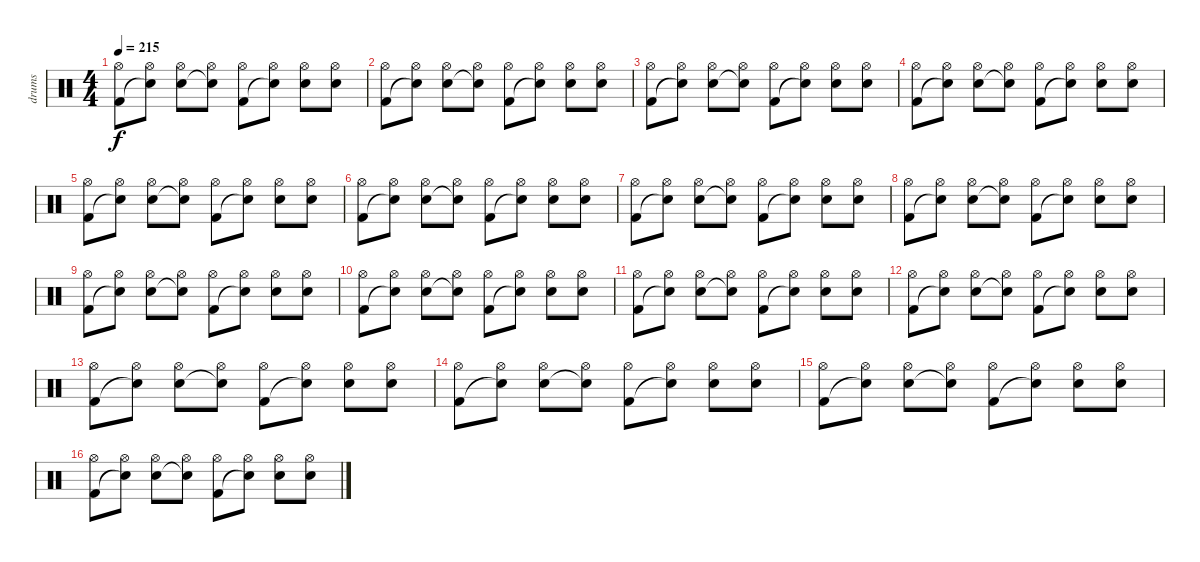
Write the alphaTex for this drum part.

\track ("drums" "drums") {instrument percussion}
\staff {score}
\articulation defaults
\ts (4 4)
\tempo 215
\clef neutral
\ks c
("Hi-Hat (open)" "Kick (hit) 2").8{dy f} ("Hi-Hat (open)" "Snare (hit)"{t}).8 ("Hi-Hat (open)" "Snare (hit) 2").8 ("Hi-Hat (open)" "Snare (hit)"{t}).8 ("Hi-Hat (open)" "Kick (hit) 2").8 ("Hi-Hat (open)" "Snare (hit)"{t}).8 ("Hi-Hat (open)" "Snare (hit) 2").8 ("Hi-Hat (open)" "Snare (hit) 2").8 |
("Hi-Hat (open)" "Kick (hit) 2").8 ("Hi-Hat (open)" "Snare (hit)"{t}).8 ("Hi-Hat (open)" "Snare (hit) 2").8 ("Hi-Hat (open)" "Snare (hit)"{t}).8 ("Hi-Hat (open)" "Kick (hit) 2").8 ("Hi-Hat (open)" "Snare (hit)"{t}).8 ("Hi-Hat (open)" "Snare (hit) 2").8 ("Hi-Hat (open)" "Snare (hit) 2").8 |
("Hi-Hat (open)" "Kick (hit) 2").8 ("Hi-Hat (open)" "Snare (hit)"{t}).8 ("Hi-Hat (open)" "Snare (hit) 2").8 ("Hi-Hat (open)" "Snare (hit)"{t}).8 ("Hi-Hat (open)" "Kick (hit) 2").8 ("Hi-Hat (open)" "Snare (hit)"{t}).8 ("Hi-Hat (open)" "Snare (hit) 2").8 ("Hi-Hat (open)" "Snare (hit) 2").8 |
("Hi-Hat (open)" "Kick (hit) 2").8 ("Hi-Hat (open)" "Snare (hit)"{t}).8 ("Hi-Hat (open)" "Snare (hit) 2").8 ("Hi-Hat (open)" "Snare (hit)"{t}).8 ("Hi-Hat (open)" "Kick (hit) 2").8 ("Hi-Hat (open)" "Snare (hit)"{t}).8 ("Hi-Hat (open)" "Snare (hit) 2").8 ("Hi-Hat (open)" "Snare (hit) 2").8 |
("Hi-Hat (open)" "Kick (hit) 2").8 ("Hi-Hat (open)" "Snare (hit)"{t}).8 ("Hi-Hat (open)" "Snare (hit) 2").8 ("Hi-Hat (open)" "Snare (hit)"{t}).8 ("Hi-Hat (open)" "Kick (hit) 2").8 ("Hi-Hat (open)" "Snare (hit)"{t}).8 ("Hi-Hat (open)" "Snare (hit) 2").8 ("Hi-Hat (open)" "Snare (hit) 2").8 |
("Hi-Hat (open)" "Kick (hit) 2").8 ("Hi-Hat (open)" "Snare (hit)"{t}).8 ("Hi-Hat (open)" "Snare (hit) 2").8 ("Hi-Hat (open)" "Snare (hit)"{t}).8 ("Hi-Hat (open)" "Kick (hit) 2").8 ("Hi-Hat (open)" "Snare (hit)"{t}).8 ("Hi-Hat (open)" "Snare (hit) 2").8 ("Hi-Hat (open)" "Snare (hit) 2").8 |
("Hi-Hat (open)" "Kick (hit) 2").8 ("Hi-Hat (open)" "Snare (hit)"{t}).8 ("Hi-Hat (open)" "Snare (hit) 2").8 ("Hi-Hat (open)" "Snare (hit)"{t}).8 ("Hi-Hat (open)" "Kick (hit) 2").8 ("Hi-Hat (open)" "Snare (hit)"{t}).8 ("Hi-Hat (open)" "Snare (hit) 2").8 ("Hi-Hat (open)" "Snare (hit) 2").8 |
("Hi-Hat (open)" "Kick (hit) 2").8 ("Hi-Hat (open)" "Snare (hit)"{t}).8 ("Hi-Hat (open)" "Snare (hit) 2").8 ("Hi-Hat (open)" "Snare (hit)"{t}).8 ("Hi-Hat (open)" "Kick (hit) 2").8 ("Hi-Hat (open)" "Snare (hit)"{t}).8 ("Hi-Hat (open)" "Snare (hit) 2").8 ("Hi-Hat (open)" "Snare (hit) 2").8 |
("Hi-Hat (open)" "Kick (hit) 2").8 ("Hi-Hat (open)" "Snare (hit)"{t}).8 ("Hi-Hat (open)" "Snare (hit) 2").8 ("Hi-Hat (open)" "Snare (hit)"{t}).8 ("Hi-Hat (open)" "Kick (hit) 2").8 ("Hi-Hat (open)" "Snare (hit)"{t}).8 ("Hi-Hat (open)" "Snare (hit) 2").8 ("Hi-Hat (open)" "Snare (hit) 2").8 |
("Hi-Hat (open)" "Kick (hit) 2").8 ("Hi-Hat (open)" "Snare (hit)"{t}).8 ("Hi-Hat (open)" "Snare (hit) 2").8 ("Hi-Hat (open)" "Snare (hit)"{t}).8 ("Hi-Hat (open)" "Kick (hit) 2").8 ("Hi-Hat (open)" "Snare (hit)"{t}).8 ("Hi-Hat (open)" "Snare (hit) 2").8 ("Hi-Hat (open)" "Snare (hit) 2").8 |
("Hi-Hat (open)" "Kick (hit) 2").8 ("Hi-Hat (open)" "Snare (hit)"{t}).8 ("Hi-Hat (open)" "Snare (hit) 2").8 ("Hi-Hat (open)" "Snare (hit)"{t}).8 ("Hi-Hat (open)" "Kick (hit) 2").8 ("Hi-Hat (open)" "Snare (hit)"{t}).8 ("Hi-Hat (open)" "Snare (hit) 2").8 ("Hi-Hat (open)" "Snare (hit) 2").8 |
("Hi-Hat (open)" "Kick (hit) 2").8 ("Hi-Hat (open)" "Snare (hit)"{t}).8 ("Hi-Hat (open)" "Snare (hit) 2").8 ("Hi-Hat (open)" "Snare (hit)"{t}).8 ("Hi-Hat (open)" "Kick (hit) 2").8 ("Hi-Hat (open)" "Snare (hit)"{t}).8 ("Hi-Hat (open)" "Snare (hit) 2").8 ("Hi-Hat (open)" "Snare (hit) 2").8 |
("Hi-Hat (open)" "Kick (hit) 2").8 ("Hi-Hat (open)" "Snare (hit)"{t}).8 ("Hi-Hat (open)" "Snare (hit) 2").8 ("Hi-Hat (open)" "Snare (hit)"{t}).8 ("Hi-Hat (open)" "Kick (hit) 2").8 ("Hi-Hat (open)" "Snare (hit)"{t}).8 ("Hi-Hat (open)" "Snare (hit) 2").8 ("Hi-Hat (open)" "Snare (hit) 2").8 |
("Hi-Hat (open)" "Kick (hit) 2").8 ("Hi-Hat (open)" "Snare (hit)"{t}).8 ("Hi-Hat (open)" "Snare (hit) 2").8 ("Hi-Hat (open)" "Snare (hit)"{t}).8 ("Hi-Hat (open)" "Kick (hit) 2").8 ("Hi-Hat (open)" "Snare (hit)"{t}).8 ("Hi-Hat (open)" "Snare (hit) 2").8 ("Hi-Hat (open)" "Snare (hit) 2").8 |
("Hi-Hat (open)" "Kick (hit) 2").8 ("Hi-Hat (open)" "Snare (hit)"{t}).8 ("Hi-Hat (open)" "Snare (hit) 2").8 ("Hi-Hat (open)" "Snare (hit)"{t}).8 ("Hi-Hat (open)" "Kick (hit) 2").8 ("Hi-Hat (open)" "Snare (hit)"{t}).8 ("Hi-Hat (open)" "Snare (hit) 2").8 ("Hi-Hat (open)" "Snare (hit) 2").8 |
("Hi-Hat (open)" "Kick (hit) 2").8 ("Hi-Hat (open)" "Snare (hit)"{t}).8 ("Hi-Hat (open)" "Snare (hit) 2").8 ("Hi-Hat (open)" "Snare (hit)"{t}).8 ("Hi-Hat (open)" "Kick (hit) 2").8 ("Hi-Hat (open)" "Snare (hit)"{t}).8 ("Hi-Hat (open)" "Snare (hit) 2").8 ("Hi-Hat (open)" "Snare (hit) 2").8
